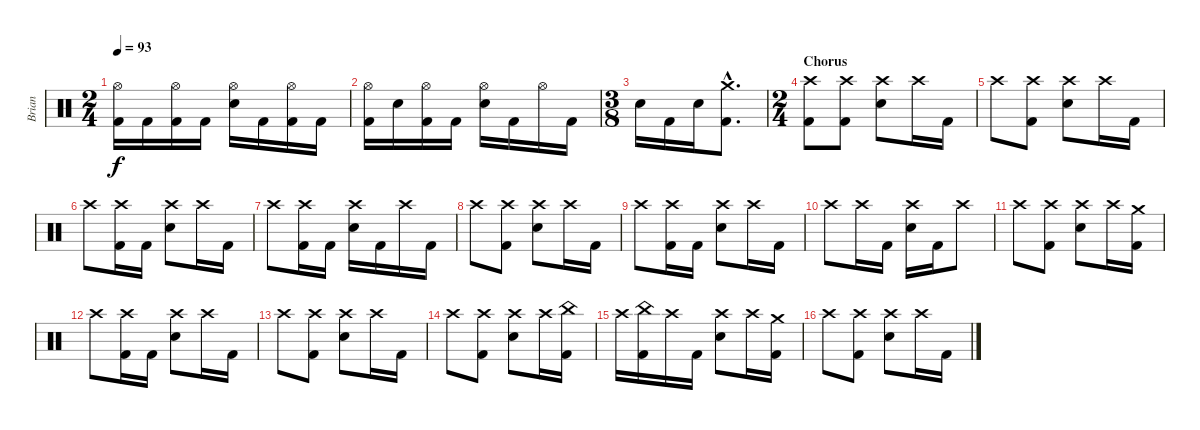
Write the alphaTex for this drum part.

\track ("Brian" "Brian") {instrument percussion}
\staff {score}
\articulation defaults
\ts (2 4)
\tempo 93
\clef neutral
\ks c
("Hi-Hat (open)" "Kick (hit) 2").16{dy f} "Kick (hit) 2".16 ("Hi-Hat (open)" "Kick (hit) 2").16 "Kick (hit) 2".16 ("Hi-Hat (open)" "Electric Snare (hit)").16 "Kick (hit) 2".16 ("Hi-Hat (open)" "Kick (hit) 2").16 "Kick (hit) 2".16 |
("Hi-Hat (open)" "Kick (hit) 2").16 "Electric Snare (hit)".16 ("Hi-Hat (open)" "Kick (hit) 2").16 "Kick (hit) 2".16 ("Hi-Hat (open)" "Electric Snare (hit)").16 "Kick (hit) 2".16 "Hi-Hat (open)".16 "Kick (hit) 2".16 |
\ts (3 8)
"Electric Snare (hit)".16 "Kick (hit) 2".16 "Electric Snare (hit)".16 ("Crash medium (hit)"{hac} "Kick (hit) 2"{hac}).8{d} |
\ts (2 4)
\section ("" "Chorus")
("Crash high (hit)" "Kick (hit) 2").8 ("Crash high (hit)" "Kick (hit) 2").8 ("Crash high (hit)" "Electric Snare (hit)").8 "Crash high (hit)".16 "Kick (hit) 2".16 |
"Crash high (hit)".8 ("Crash high (hit)" "Kick (hit) 2").8 ("Crash high (hit)" "Electric Snare (hit)").8 "Crash high (hit)".16 "Kick (hit) 2".16 |
"Crash high (hit)".8 ("Crash high (hit)" "Kick (hit) 2").16 "Kick (hit) 2".16 ("Crash high (hit)" "Electric Snare (hit)").8 "Crash high (hit)".16 "Kick (hit) 2".16 |
"Crash high (hit)".8 ("Crash high (hit)" "Kick (hit) 2").16 "Kick (hit) 2".16 ("Crash high (hit)" "Electric Snare (hit)").16 "Kick (hit) 2".16 "Crash high (hit)".16 "Kick (hit) 2".16 |
"Crash high (hit)".8 ("Crash high (hit)" "Kick (hit) 2").8 ("Crash high (hit)" "Electric Snare (hit)").8 "Crash high (hit)".16 "Kick (hit) 2".16 |
"Crash high (hit)".8 ("Crash high (hit)" "Kick (hit) 2").16 "Kick (hit) 2".16 ("Crash high (hit)" "Electric Snare (hit)").8 "Crash high (hit)".16 "Kick (hit) 2".16 |
"Crash high (hit)".8 "Crash high (hit)".16 "Kick (hit) 2".16 ("Crash high (hit)" "Electric Snare (hit)").16 "Kick (hit) 2".16 "Crash high (hit)".8 |
"Crash high (hit)".8 ("Crash high (hit)" "Kick (hit) 2").8 ("Crash high (hit)" "Electric Snare (hit)").8 "Crash high (hit)".16 ("Crash medium (hit)" "Kick (hit) 2").16 |
"Crash high (hit)".8 ("Crash high (hit)" "Kick (hit) 2").16 "Kick (hit) 2".16 ("Crash high (hit)" "Electric Snare (hit)").8 "Crash high (hit)".16 "Kick (hit) 2".16 |
"Crash high (hit)".8 ("Crash high (hit)" "Kick (hit) 2").8 ("Crash high (hit)" "Electric Snare (hit)").8 "Crash high (hit)".16 "Kick (hit) 2".16 |
"Crash high (hit)".8 ("Crash high (hit)" "Kick (hit) 2").8 ("Crash high (hit)" "Electric Snare (hit)").8 "Crash high (hit)".16 ("China (hit)" "Kick (hit) 2").16 |
"Crash high (hit)".16 ("China (hit)" "Kick (hit) 2").16 "Crash high (hit)".16 "Kick (hit) 2".16 ("Crash high (hit)" "Electric Snare (hit)").8 "Crash high (hit)".16 ("Crash medium (hit)" "Kick (hit) 2").16 |
"Crash high (hit)".8 ("Crash high (hit)" "Kick (hit) 2").8 ("Crash high (hit)" "Electric Snare (hit)").8 "Crash high (hit)".16 "Kick (hit) 2".16
